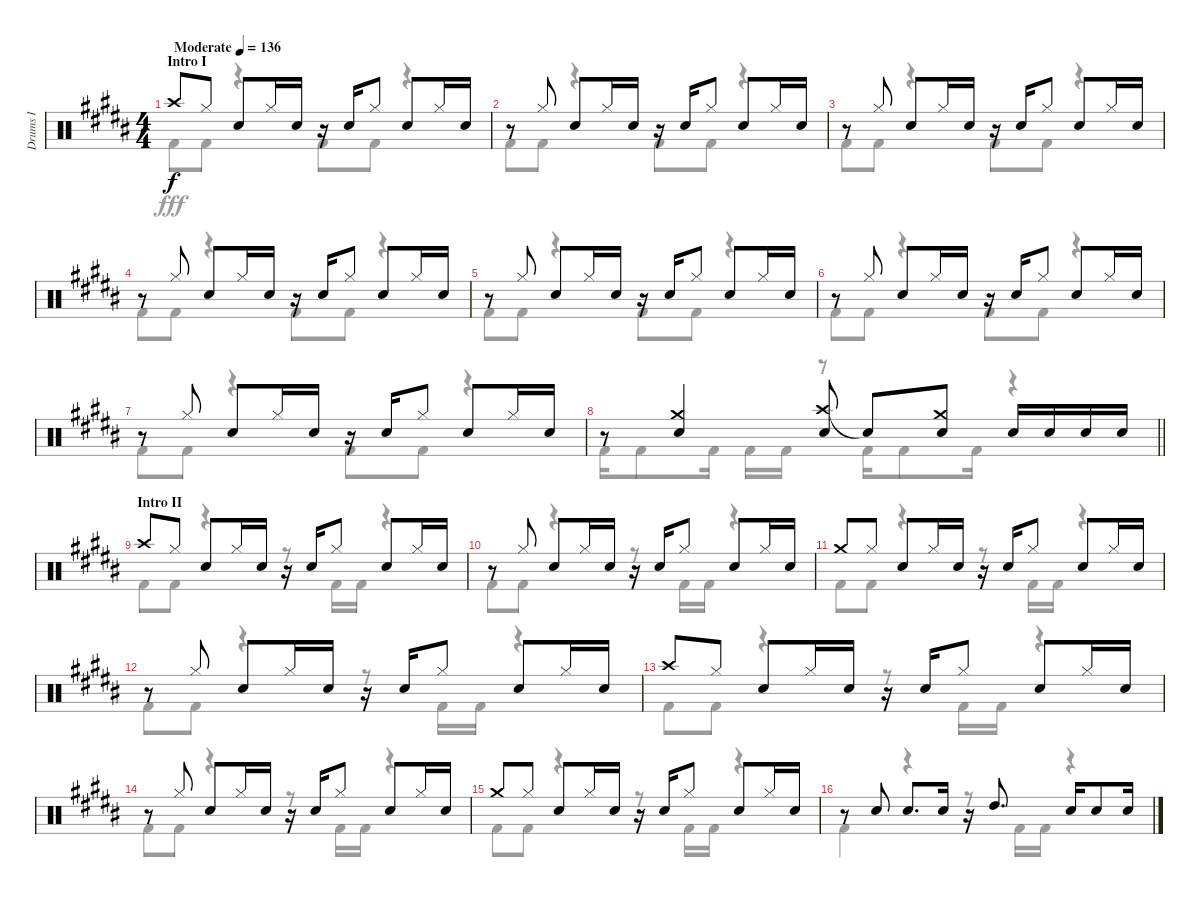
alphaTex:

\track ("Drums I" "Drums I") {instrument percussion}
\staff {score}
\articulation defaults
\voice
\ts (4 4)
\section ("" "Intro I")
\tempo (136 "Moderate")
\clef neutral
\ks b "Crash high (hit)".8{dy f} "Hi-Hat (closed)".8 "Snare (hit) 2".8 "Hi-Hat (closed)".16 "Snare (hit) 2".16
r.16 "Snare (hit) 2".16 "Hi-Hat (closed)".8 "Snare (hit) 2".8 "Hi-Hat (closed)".16 "Snare (hit) 2".16 |
r.8 "Hi-Hat (closed)".8 "Snare (hit) 2".8 "Hi-Hat (closed)".16 "Snare (hit) 2".16 r.16 "Snare (hit) 2".16 "Hi-Hat (closed)".8 "Snare (hit) 2".8 "Hi-Hat (closed)".16 "Snare (hit) 2".16 |
r.8 "Hi-Hat (closed)".8 "Snare (hit) 2".8 "Hi-Hat (closed)".16 "Snare (hit) 2".16 r.16 "Snare (hit) 2".16 "Hi-Hat (closed)".8 "Snare (hit) 2".8 "Hi-Hat (closed)".16 "Snare (hit) 2".16 |
r.8 "Hi-Hat (closed)".8 "Snare (hit) 2".8 "Hi-Hat (closed)".16 "Snare (hit) 2".16 r.16 "Snare (hit) 2".16 "Hi-Hat (closed)".8 "Snare (hit) 2".8 "Hi-Hat (closed)".16 "Snare (hit) 2".16 |
r.8 "Hi-Hat (closed)".8 "Snare (hit) 2".8 "Hi-Hat (closed)".16 "Snare (hit) 2".16 r.16 "Snare (hit) 2".16 "Hi-Hat (closed)".8 "Snare (hit) 2".8 "Hi-Hat (closed)".16 "Snare (hit) 2".16 |
r.8 "Hi-Hat (closed)".8 "Snare (hit) 2".8 "Hi-Hat (closed)".16 "Snare (hit) 2".16 r.16 "Snare (hit) 2".16 "Hi-Hat (closed)".8 "Snare (hit) 2".8 "Hi-Hat (closed)".16 "Snare (hit) 2".16 |
r.8 "Hi-Hat (closed)".8 "Snare (hit) 2".8 "Hi-Hat (closed)".16 "Snare (hit) 2".16 r.16 "Snare (hit) 2".16 "Hi-Hat (closed)".8 "Snare (hit) 2".8 "Hi-Hat (closed)".16 "Snare (hit) 2".16 |
\barLineRight lightlight
r.8 ("Crash medium (hit)" "Snare (hit) 2").4 ("Crash high (hit)" "Snare (hit) 2").8 "Snare (hit)"{t}.8 ("Crash medium (hit)" "Snare (hit) 2").8 "Snare (hit) 2".16 "Snare (hit) 2".16 "Snare (hit) 2".16 "Snare (hit) 2".16 |
\section ("" "Intro II")
"Crash high (hit)".8 "Hi-Hat (closed)".8 "Snare (hit) 2".8 "Hi-Hat (closed)".16 "Snare (hit) 2".16 r.16 "Snare (hit) 2".16 "Hi-Hat (closed)".8 "Snare (hit) 2".8 "Hi-Hat (closed)".16 "Snare (hit) 2".16 |
r.8 "Hi-Hat (closed)".8 "Snare (hit) 2".8 "Hi-Hat (closed)".16 "Snare (hit) 2".16 r.16 "Snare (hit) 2".16 "Hi-Hat (closed)".8 "Snare (hit) 2".8 "Hi-Hat (closed)".16 "Snare (hit) 2".16 |
"Crash medium (hit)".8 "Hi-Hat (closed)".8 "Snare (hit) 2".8 "Hi-Hat (closed)".16 "Snare (hit) 2".16 r.16 "Snare (hit) 2".16 "Hi-Hat (closed)".8 "Snare (hit) 2".8 "Hi-Hat (closed)".16 "Snare (hit) 2".16 |
r.8 "Hi-Hat (closed)".8 "Snare (hit) 2".8 "Hi-Hat (closed)".16 "Snare (hit) 2".16 r.16 "Snare (hit) 2".16 "Hi-Hat (closed)".8 "Snare (hit) 2".8 "Hi-Hat (closed)".16 "Snare (hit) 2".16 |
"Crash high (hit)".8 "Hi-Hat (closed)".8 "Snare (hit) 2".8 "Hi-Hat (closed)".16 "Snare (hit) 2".16 r.16 "Snare (hit) 2".16 "Hi-Hat (closed)".8 "Snare (hit) 2".8 "Hi-Hat (closed)".16 "Snare (hit) 2".16 |
r.8 "Hi-Hat (closed)".8 "Snare (hit) 2".8 "Hi-Hat (closed)".16 "Snare (hit) 2".16 r.16 "Snare (hit) 2".16 "Hi-Hat (closed)".8 "Snare (hit) 2".8 "Hi-Hat (closed)".16 "Snare (hit) 2".16 |
"Crash medium (hit)".8 "Hi-Hat (closed)".8 "Snare (hit) 2".8 "Hi-Hat (closed)".16 "Snare (hit) 2".16 r.16 "Snare (hit) 2".16 "Hi-Hat (closed)".8 "Snare (hit) 2".8 "Hi-Hat (closed)".16 "Snare (hit) 2".16 |
r.8 "Snare (hit) 2".8 "Snare (hit) 2".8{d} "Snare (hit) 2".16 r.16 "High Tom (hit)".8{d} "Snare (hit) 2".16 "Snare (hit) 2".8 "Snare (hit) 2".16
\voice
\clef neutral
\ottava regular
\simile none
\ks b "Kick (hit) 2".8{dy fff} "Kick (hit) 2".8
r.4 "Kick (hit) 2".8 "Kick (hit) 2".8 r.4 |
"Kick (hit) 2".8 "Kick (hit) 2".8 r.4 "Kick (hit) 2".8 "Kick (hit) 2".8 r.4 |
"Kick (hit) 2".8 "Kick (hit) 2".8 r.4 "Kick (hit) 2".8 "Kick (hit) 2".8 r.4 |
"Kick (hit) 2".8 "Kick (hit) 2".8 r.4 "Kick (hit) 2".8 "Kick (hit) 2".8 r.4 |
"Kick (hit) 2".8 "Kick (hit) 2".8 r.4 "Kick (hit) 2".8 "Kick (hit) 2".8 r.4 |
"Kick (hit) 2".8 "Kick (hit) 2".8 r.4 "Kick (hit) 2".8 "Kick (hit) 2".8 r.4 |
"Kick (hit) 2".8 "Kick (hit) 2".8 r.4 "Kick (hit) 2".8 "Kick (hit) 2".8 r.4 |
\barLineRight lightlight "Kick (hit) 2".16 "Kick (hit) 2".8 "Kick (hit) 2".16 "Kick (hit) 2".16 "Kick (hit) 2".16
r.8 "Kick (hit) 2".16 "Kick (hit) 2".8 "Kick (hit) 2".16 r.4 |
"Kick (hit) 2".8 "Kick (hit) 2".8 r.4 r.8 "Kick (hit) 2".16 "Kick (hit) 2".16 r.4 |
"Kick (hit) 2".8 "Kick (hit) 2".8 r.4 r.8 "Kick (hit) 2".16 "Kick (hit) 2".16 r.4 |
"Kick (hit) 2".8 "Kick (hit) 2".8 r.4 r.8 "Kick (hit) 2".16 "Kick (hit) 2".16 r.4 |
"Kick (hit) 2".8 "Kick (hit) 2".8 r.4 r.8 "Kick (hit) 2".16 "Kick (hit) 2".16 r.4 |
"Kick (hit) 2".8 "Kick (hit) 2".8 r.4 r.8 "Kick (hit) 2".16 "Kick (hit) 2".16 r.4 |
"Kick (hit) 2".8 "Kick (hit) 2".8 r.4 r.8 "Kick (hit) 2".16 "Kick (hit) 2".16 r.4 |
"Kick (hit) 2".8 "Kick (hit) 2".8 r.4 r.8 "Kick (hit) 2".16 "Kick (hit) 2".16 r.4 |
"Kick (hit) 2".4 r.4 r.8 "Kick (hit) 2".16 "Kick (hit) 2".16 r.4
